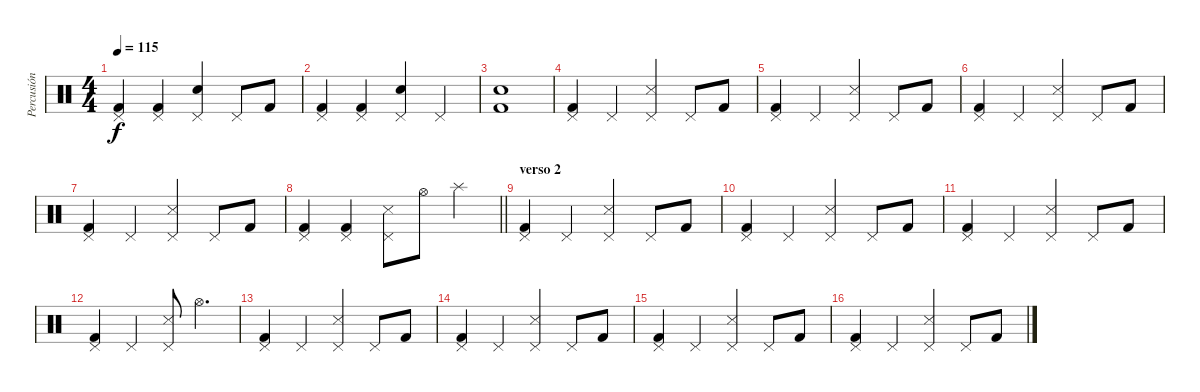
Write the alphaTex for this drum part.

\track ("Percusión" "Percusión") {instrument percussion}
\staff {score}
\articulation defaults
\ts (4 4)
\tempo 115
\clef neutral
\ks c
("Kick (hit) 2" "Pedal Hi-Hat (hit)").4{dy f} ("Kick (hit) 2" "Pedal Hi-Hat (hit)").4 ("Electric Snare (hit)" "Pedal Hi-Hat (hit)").4 "Pedal Hi-Hat (hit)".8 "Kick (hit) 2".8 |
("Kick (hit) 2" "Pedal Hi-Hat (hit)").4 ("Kick (hit) 2" "Pedal Hi-Hat (hit)").4 ("Electric Snare (hit)" "Pedal Hi-Hat (hit)").4 "Pedal Hi-Hat (hit)".4 |
("Electric Snare (hit)" "Kick (hit) 2").1 |
("Pedal Hi-Hat (hit)" "Kick (hit) 2").4 "Pedal Hi-Hat (hit)".4 ("Pedal Hi-Hat (hit)" "Snare (side stick) 3").4 "Pedal Hi-Hat (hit)".8 "Kick (hit) 2".8 |
("Pedal Hi-Hat (hit)" "Kick (hit) 2").4 "Pedal Hi-Hat (hit)".4 ("Pedal Hi-Hat (hit)" "Snare (side stick) 3").4 "Pedal Hi-Hat (hit)".8 "Kick (hit) 2".8 |
("Pedal Hi-Hat (hit)" "Kick (hit) 2").4 "Pedal Hi-Hat (hit)".4 ("Pedal Hi-Hat (hit)" "Snare (side stick) 3").4 "Pedal Hi-Hat (hit)".8 "Kick (hit) 2".8 |
("Pedal Hi-Hat (hit)" "Kick (hit) 2").4 "Pedal Hi-Hat (hit)".4 ("Pedal Hi-Hat (hit)" "Snare (side stick) 3").4 "Pedal Hi-Hat (hit)".8 "Kick (hit) 2".8 |
\barLineRight lightlight
("Pedal Hi-Hat (hit)" "Kick (hit) 2").4 ("Pedal Hi-Hat (hit)" "Kick (hit) 2").4 ("Pedal Hi-Hat (hit)" "Snare (side stick) 3").8 "Hi-Hat (open)".8 "Splash (hit)".4 |
\section ("" "verso 2")
("Pedal Hi-Hat (hit)" "Kick (hit) 2").4 "Pedal Hi-Hat (hit)".4 ("Pedal Hi-Hat (hit)" "Snare (side stick) 3").4 "Pedal Hi-Hat (hit)".8 "Kick (hit) 2".8 |
("Pedal Hi-Hat (hit)" "Kick (hit) 2").4 "Pedal Hi-Hat (hit)".4 ("Pedal Hi-Hat (hit)" "Snare (side stick) 3").4 "Pedal Hi-Hat (hit)".8 "Kick (hit) 2".8 |
("Pedal Hi-Hat (hit)" "Kick (hit) 2").4 "Pedal Hi-Hat (hit)".4 ("Pedal Hi-Hat (hit)" "Snare (side stick) 3").4 "Pedal Hi-Hat (hit)".8 "Kick (hit) 2".8 |
("Pedal Hi-Hat (hit)" "Kick (hit) 2").4 "Pedal Hi-Hat (hit)".4 ("Pedal Hi-Hat (hit)" "Snare (side stick) 3").8 "Hi-Hat (open)".4{d} |
("Pedal Hi-Hat (hit)" "Kick (hit) 2").4 "Pedal Hi-Hat (hit)".4 ("Pedal Hi-Hat (hit)" "Snare (side stick) 3").4 "Pedal Hi-Hat (hit)".8 "Kick (hit) 2".8 |
("Pedal Hi-Hat (hit)" "Kick (hit) 2").4 "Pedal Hi-Hat (hit)".4 ("Pedal Hi-Hat (hit)" "Snare (side stick) 3").4 "Pedal Hi-Hat (hit)".8 "Kick (hit) 2".8 |
("Pedal Hi-Hat (hit)" "Kick (hit) 2").4 "Pedal Hi-Hat (hit)".4 ("Pedal Hi-Hat (hit)" "Snare (side stick) 3").4 "Pedal Hi-Hat (hit)".8 "Kick (hit) 2".8 |
("Pedal Hi-Hat (hit)" "Kick (hit) 2").4 "Pedal Hi-Hat (hit)".4 ("Pedal Hi-Hat (hit)" "Snare (side stick) 3").4 "Pedal Hi-Hat (hit)".8 "Kick (hit) 2".8
